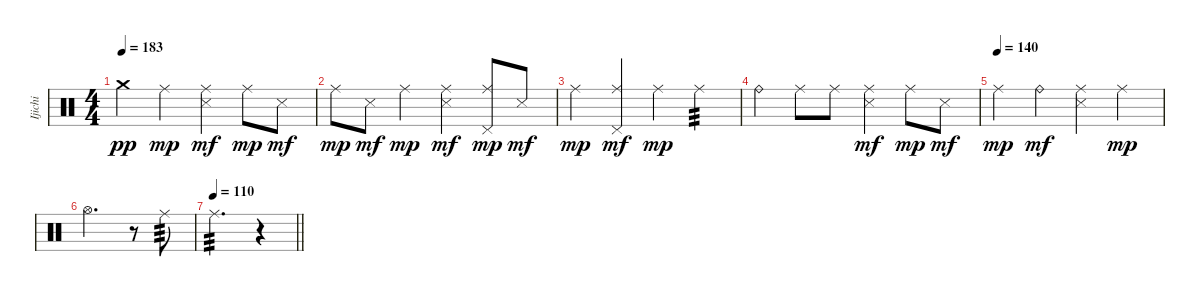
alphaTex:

\track ("Ijichi" "Ijichi") {instrument percussion}
\staff {score}
\articulation defaults
\ts (4 4)
\tempo 183
\clef neutral
\ks c "Crash medium (hit)".4{dy pp} "Ride (middle)".4{dy mp}
("Ride (middle)" "Snare (side stick) 3").4{dy mf} "Ride (middle)".8{dy mp} "Snare (side stick) 3".8{dy mf} |
"Ride (middle)".8{dy mp} "Snare (side stick) 3".8{dy mf} "Ride (middle)".4{dy mp} ("Ride (middle)" "Snare (side stick) 3").4{dy mf} ("Ride (middle)" "Pedal Hi-Hat (hit)").8{dy mp} "Snare (side stick) 3".8{dy mf} |
"Ride (middle)".4{dy mp} ("Ride (middle)" "Pedal Hi-Hat (hit)").4{dy mf} "Ride (middle)".4{dy mp} "Ride (middle)".4{tp 3} |
"Ride (bell)".4 "Ride (middle)".8 "Ride (middle)".8 ("Ride (middle)" "Snare (side stick) 3").4{dy mf} "Ride (middle)".8{dy mp} "Snare (side stick) 3".8{dy mf} |
\tempo (140)
"Ride (middle)".4{dy mp} "Ride (bell)".4{dy mf} ("Ride (middle)" "Snare (side stick) 3").4 "Ride (middle)".4{dy mp} |
"Hi-Hat (open)".2{d} r.8 "Ride (middle)".8{tp 3} |
\tempo 110
\barLineRight lightlight "Ride (middle)".2{d tp 3}
r.4
